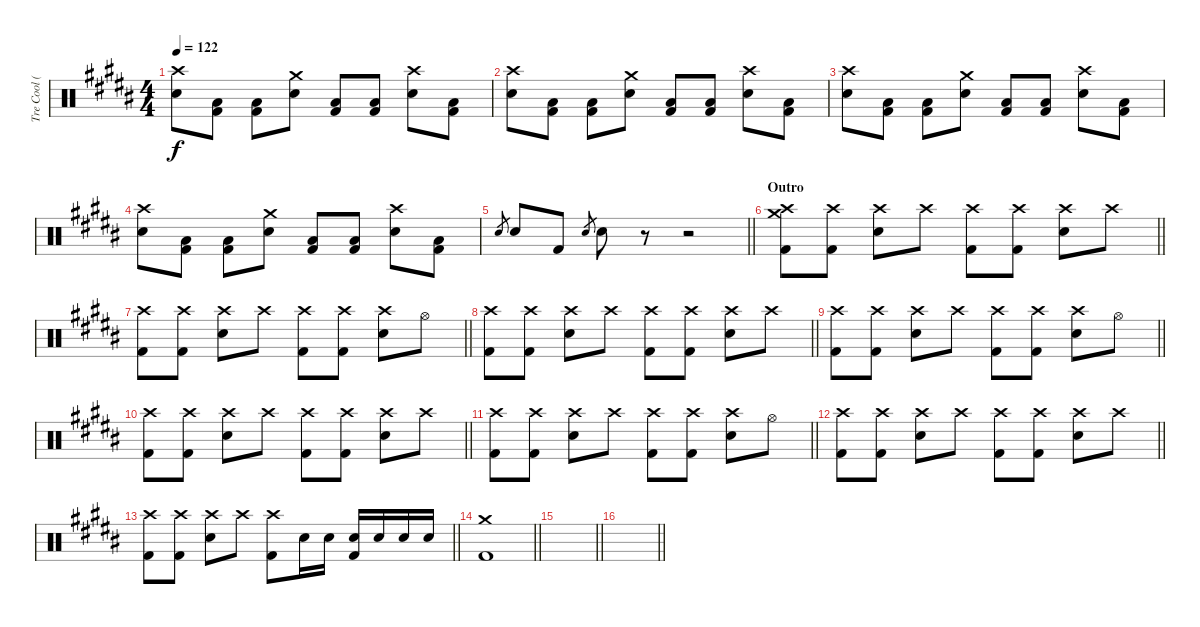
\track ("Tre Cool (Drums)" "Tre Cool (") {instrument percussion}
\staff {score}
\articulation defaults
\ts (4 4)
\tempo 122
\clef neutral
\ks b
("Crash high (hit)" "Electric Snare (hit)").8{dy f} ("Low Tom (hit)" "Kick (hit) 2").8 ("Low Tom (hit)" "Kick (hit) 2").8 ("Crash medium (hit)" "Electric Snare (hit)").8 ("Low Tom (hit)" "Kick (hit) 2").8 ("Low Tom (hit)" "Kick (hit) 2").8 ("Crash high (hit)" "Electric Snare (hit)").8 ("Low Tom (hit)" "Kick (hit) 2").8 |
("Crash high (hit)" "Electric Snare (hit)").8 ("Low Tom (hit)" "Kick (hit) 2").8 ("Low Tom (hit)" "Kick (hit) 2").8 ("Crash medium (hit)" "Electric Snare (hit)").8 ("Low Tom (hit)" "Kick (hit) 2").8 ("Low Tom (hit)" "Kick (hit) 2").8 ("Crash high (hit)" "Electric Snare (hit)").8 ("Low Tom (hit)" "Kick (hit) 2").8 |
("Crash high (hit)" "Electric Snare (hit)").8 ("Low Tom (hit)" "Kick (hit) 2").8 ("Low Tom (hit)" "Kick (hit) 2").8 ("Crash medium (hit)" "Electric Snare (hit)").8 ("Low Tom (hit)" "Kick (hit) 2").8 ("Low Tom (hit)" "Kick (hit) 2").8 ("Crash high (hit)" "Electric Snare (hit)").8 ("Low Tom (hit)" "Kick (hit) 2").8 |
("Crash high (hit)" "Electric Snare (hit)").8 ("Low Tom (hit)" "Kick (hit) 2").8 ("Low Tom (hit)" "Kick (hit) 2").8 ("Crash medium (hit)" "Electric Snare (hit)").8 ("Low Tom (hit)" "Kick (hit) 2").8 ("Low Tom (hit)" "Kick (hit) 2").8 ("Crash high (hit)" "Electric Snare (hit)").8 ("Low Tom (hit)" "Kick (hit) 2").8 |
\barLineRight lightlight "Electric Snare (hit)".8{gr} "Electric Snare (hit)".8 "Kick (hit) 2".8 "Electric Snare (hit)".8{gr} "Electric Snare (hit)".8
r.8 r.2 |
\section ("" "Outro")
\barLineRight lightlight
("Crash high (hit)" "Crash medium (hit)" "Kick (hit) 2").8 ("Crash high (hit)" "Kick (hit) 2").8 ("Crash high (hit)" "Electric Snare (hit)").8 "Crash high (hit)".8 ("Crash high (hit)" "Kick (hit) 2").8 ("Crash high (hit)" "Kick (hit) 2").8 ("Crash high (hit)" "Electric Snare (hit)").8 "Crash high (hit)".8 |
\barLineRight lightlight
("Crash high (hit)" "Kick (hit) 2").8 ("Crash high (hit)" "Kick (hit) 2").8 ("Crash high (hit)" "Electric Snare (hit)").8 "Crash high (hit)".8 ("Crash high (hit)" "Kick (hit) 2").8 ("Crash high (hit)" "Kick (hit) 2").8 ("Crash high (hit)" "Electric Snare (hit)").8 "Hi-Hat (open)".8 |
\barLineRight lightlight
("Crash high (hit)" "Kick (hit) 2").8 ("Crash high (hit)" "Kick (hit) 2").8 ("Crash high (hit)" "Electric Snare (hit)").8 "Crash high (hit)".8 ("Crash high (hit)" "Kick (hit) 2").8 ("Crash high (hit)" "Kick (hit) 2").8 ("Crash high (hit)" "Electric Snare (hit)").8 "Crash high (hit)".8 |
\barLineRight lightlight
("Crash high (hit)" "Kick (hit) 2").8 ("Crash high (hit)" "Kick (hit) 2").8 ("Crash high (hit)" "Electric Snare (hit)").8 "Crash high (hit)".8 ("Crash high (hit)" "Kick (hit) 2").8 ("Crash high (hit)" "Kick (hit) 2").8 ("Crash high (hit)" "Electric Snare (hit)").8 "Hi-Hat (open)".8 |
\barLineRight lightlight
("Crash high (hit)" "Kick (hit) 2").8 ("Crash high (hit)" "Kick (hit) 2").8 ("Crash high (hit)" "Electric Snare (hit)").8 "Crash high (hit)".8 ("Crash high (hit)" "Kick (hit) 2").8 ("Crash high (hit)" "Kick (hit) 2").8 ("Crash high (hit)" "Electric Snare (hit)").8 "Crash high (hit)".8 |
\barLineRight lightlight
("Crash high (hit)" "Kick (hit) 2").8 ("Crash high (hit)" "Kick (hit) 2").8 ("Crash high (hit)" "Electric Snare (hit)").8 "Crash high (hit)".8 ("Crash high (hit)" "Kick (hit) 2").8 ("Crash high (hit)" "Kick (hit) 2").8 ("Crash high (hit)" "Electric Snare (hit)").8 "Hi-Hat (open)".8 |
\barLineRight lightlight
("Crash high (hit)" "Kick (hit) 2").8 ("Crash high (hit)" "Kick (hit) 2").8 ("Crash high (hit)" "Electric Snare (hit)").8 "Crash high (hit)".8 ("Crash high (hit)" "Kick (hit) 2").8 ("Crash high (hit)" "Kick (hit) 2").8 ("Crash high (hit)" "Electric Snare (hit)").8 "Crash high (hit)".8 |
\barLineRight lightlight
("Crash high (hit)" "Kick (hit) 2").8 ("Crash high (hit)" "Kick (hit) 2").8 ("Crash high (hit)" "Electric Snare (hit)").8 "Crash high (hit)".8 ("Crash high (hit)" "Kick (hit) 2").8 "Electric Snare (hit)".16 "Electric Snare (hit)".16 ("Electric Snare (hit)" "Kick (hit) 2").16 "Electric Snare (hit)".16 "Electric Snare (hit)".16 "Electric Snare (hit)".16 |
\barLineRight lightlight
("Crash medium (hit)" "Kick (hit) 2").1 |
\barLineRight lightlight
|
\barLineRight lightlight
